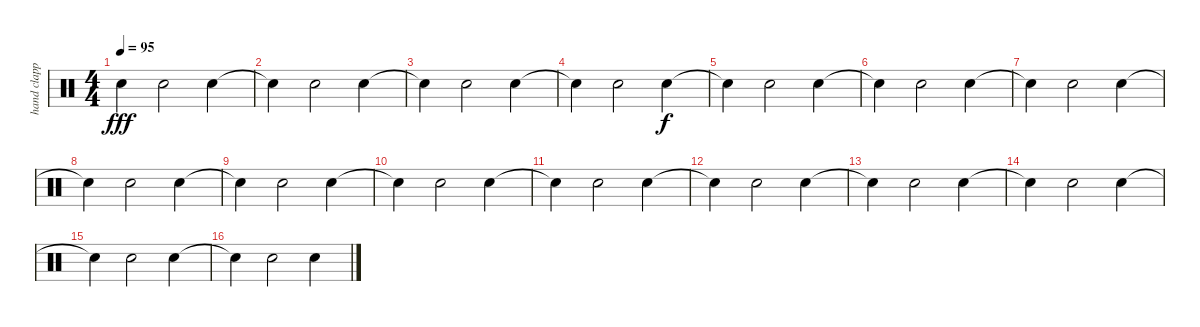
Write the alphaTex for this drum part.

\track ("hand clapping" "hand clapp") {instrument percussion}
\staff {score}
\articulation defaults
\ts (4 4)
\tempo 95
\clef neutral
\ks c "Snare (hit)"{t}.4{dy fff} "Hand Clap (hit)".2 "Hand Clap (hit)".4
|
"Snare (hit)"{t}.4 "Hand Clap (hit)".2 "Hand Clap (hit)".4 |
"Snare (hit)"{t}.4 "Hand Clap (hit)".2 "Hand Clap (hit)".4 |
"Snare (hit)"{t}.4 "Hand Clap (hit)".2 "Hand Clap (hit)".4{dy f} |
"Snare (hit)"{t}.4 "Hand Clap (hit)".2 "Hand Clap (hit)".4 |
"Snare (hit)"{t}.4 "Hand Clap (hit)".2 "Hand Clap (hit)".4 |
"Snare (hit)"{t}.4 "Hand Clap (hit)".2 "Hand Clap (hit)".4 |
"Snare (hit)"{t}.4 "Hand Clap (hit)".2 "Hand Clap (hit)".4 |
"Snare (hit)"{t}.4 "Hand Clap (hit)".2 "Hand Clap (hit)".4 |
"Snare (hit)"{t}.4 "Hand Clap (hit)".2 "Hand Clap (hit)".4 |
"Snare (hit)"{t}.4 "Hand Clap (hit)".2 "Hand Clap (hit)".4 |
"Snare (hit)"{t}.4 "Hand Clap (hit)".2 "Hand Clap (hit)".4 |
"Snare (hit)"{t}.4 "Hand Clap (hit)".2 "Hand Clap (hit)".4 |
"Snare (hit)"{t}.4 "Hand Clap (hit)".2 "Hand Clap (hit)".4 |
"Snare (hit)"{t}.4 "Hand Clap (hit)".2 "Hand Clap (hit)".4 |
"Snare (hit)"{t}.4 "Hand Clap (hit)".2 "Hand Clap (hit)".4
